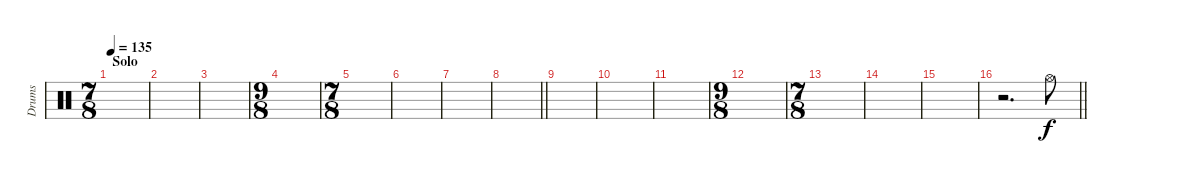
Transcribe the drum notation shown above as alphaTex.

\track ("Drums" "Drums") {instrument percussion}
\staff {score}
\articulation defaults
\ts (7 8)
\section ("" "Solo")
\tempo 135
\clef neutral
\ks c
|
|
|
\ts (9 8)
|
\ts (7 8)
|
|
|
\barLineRight lightlight
|
\section ("" "")
|
|
|
\ts (9 8)
|
\ts (7 8)
|
|
|
\barLineRight lightlight
r.2{d} "Hi-Hat (open)".8
